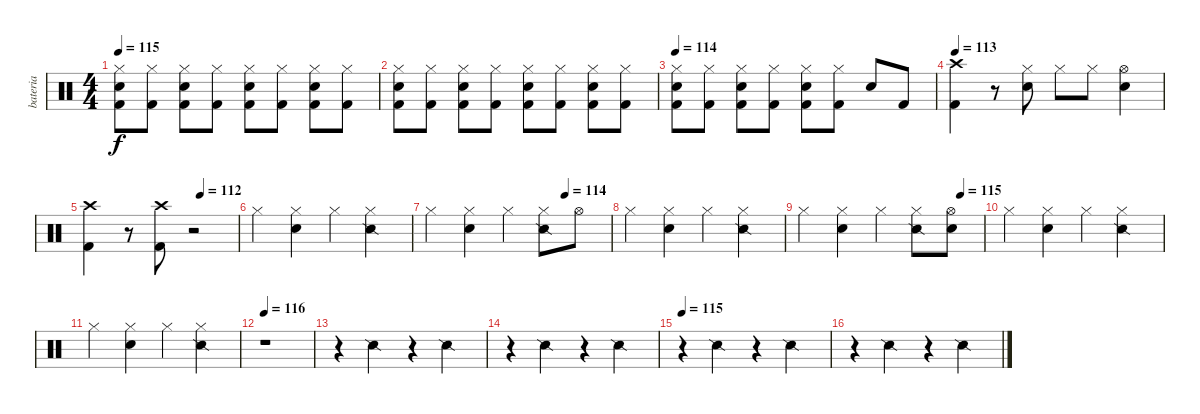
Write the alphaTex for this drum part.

\track ("bateria" "bateria") {instrument percussion}
\staff {score}
\articulation defaults
\ts (4 4)
\tempo 115
\clef neutral
\ks c
("Hi-Hat (closed)" "Snare (hit) 2" "Kick (hit) 2").8{dy f} ("Hi-Hat (closed)" "Kick (hit) 2").8 ("Hi-Hat (closed)" "Snare (hit) 2" "Kick (hit) 2").8 ("Hi-Hat (closed)" "Kick (hit) 2").8 ("Hi-Hat (closed)" "Snare (hit) 2" "Kick (hit) 2").8 ("Hi-Hat (closed)" "Kick (hit) 2").8 ("Hi-Hat (closed)" "Snare (hit) 2" "Kick (hit) 2").8 ("Hi-Hat (closed)" "Kick (hit) 2").8 |
("Hi-Hat (closed)" "Snare (hit) 2" "Kick (hit) 2").8 ("Hi-Hat (closed)" "Kick (hit) 2").8 ("Hi-Hat (closed)" "Snare (hit) 2" "Kick (hit) 2").8 ("Hi-Hat (closed)" "Kick (hit) 2").8 ("Hi-Hat (closed)" "Snare (hit) 2" "Kick (hit) 2").8 ("Hi-Hat (closed)" "Kick (hit) 2").8 ("Hi-Hat (closed)" "Snare (hit) 2" "Kick (hit) 2").8 ("Hi-Hat (closed)" "Kick (hit) 2").8 |
\tempo 114
("Hi-Hat (closed)" "Snare (hit) 2" "Kick (hit) 2").8 ("Hi-Hat (closed)" "Kick (hit) 2").8 ("Hi-Hat (closed)" "Snare (hit) 2" "Kick (hit) 2").8 ("Hi-Hat (closed)" "Kick (hit) 2").8 ("Hi-Hat (closed)" "Snare (hit) 2" "Kick (hit) 2").8 ("Hi-Hat (closed)" "Kick (hit) 2").8 "Snare (hit) 2".8 "Kick (hit) 2".8 |
\tempo 113
("Crash high (hit)" "Kick (hit) 2").4 r.8 ("Hi-Hat (closed)" "Snare (hit) 2").8 "Hi-Hat (closed)".8 "Hi-Hat (closed)".8 ("Hi-Hat (open)" "Snare (hit) 2").4 |
\tempo (112 0.75)
("Crash high (hit)" "Kick (hit) 2").4 r.8 ("Crash high (hit)" "Kick (hit) 2").8 r.2 |
"Hi-Hat (closed)".4 ("Hi-Hat (closed)" "Hand Clap (hit)").4 "Hi-Hat (closed)".4 ("Hi-Hat (closed)" "Snare (side stick) 2").4 |
\tempo (114 0.75)
"Hi-Hat (closed)".4 ("Hi-Hat (closed)" "Hand Clap (hit)").4 "Hi-Hat (closed)".4 ("Hi-Hat (closed)" "Snare (side stick) 2").8 "Hi-Hat (open)".8 |
"Hi-Hat (closed)".4 ("Hi-Hat (closed)" "Hand Clap (hit)").4 "Hi-Hat (closed)".4 ("Hi-Hat (closed)" "Snare (side stick) 2").4 |
\tempo (115 0.875)
"Hi-Hat (closed)".4 ("Hi-Hat (closed)" "Hand Clap (hit)").4 "Hi-Hat (closed)".4 ("Hi-Hat (closed)" "Snare (side stick) 2").8 ("Hi-Hat (open)" "Hand Clap (hit)").8 |
"Hi-Hat (closed)".4 ("Hi-Hat (closed)" "Hand Clap (hit)").4 "Hi-Hat (closed)".4 ("Hi-Hat (closed)" "Snare (side stick) 2").4 |
"Hi-Hat (closed)".4 ("Hi-Hat (closed)" "Hand Clap (hit)").4 "Hi-Hat (closed)".4 ("Hi-Hat (closed)" "Snare (side stick) 2").4 |
\tempo 116
r.1 |
r.4 "Snare (side stick) 2".4 r.4 "Snare (side stick) 2".4 |
r.4 "Snare (side stick) 2".4 r.4 "Snare (side stick) 2".4 |
\tempo 115
r.4 "Snare (side stick) 2".4 r.4 "Snare (side stick) 2".4 |
r.4 "Snare (side stick) 2".4 r.4 "Snare (side stick) 2".4
